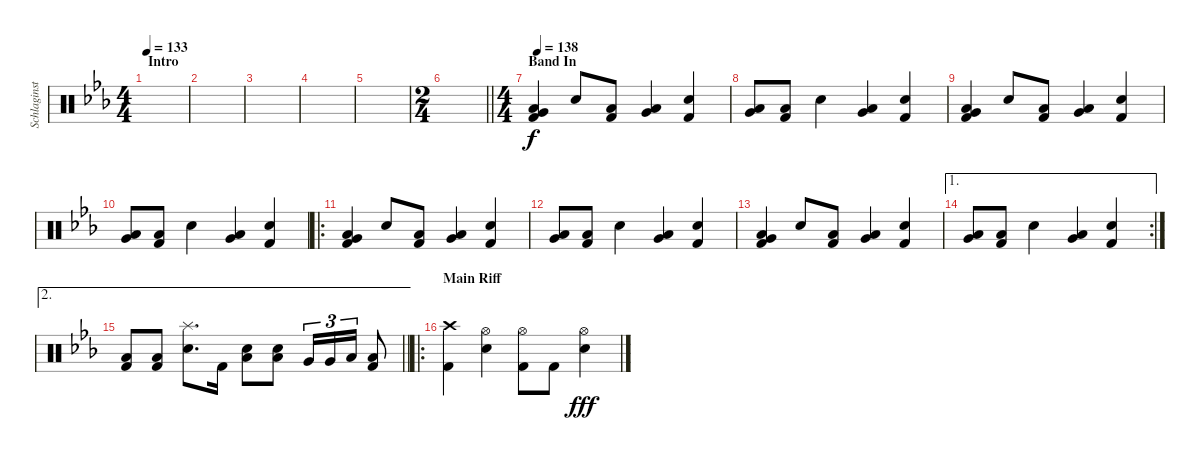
\track ("Schlaginstrumente - Auswahl" "Schlaginst") {instrument percussion}
\staff {score}
\articulation defaults
\ts (4 4)
\section ("" "Intro")
\tempo 133
\clef neutral
\ks eb
|
|
|
|
|
\ts (2 4)
\barLineRight lightlight
|
\ts (4 4)
\section ("" "Band In")
\tempo 138
("Very Low Tom (hit)" "Low Floor Tom (hit)" "Kick (hit) 2").4 "Electric Snare (hit)".8 ("Low Floor Tom (hit)" "Kick (hit) 2").8 ("Low Tom (hit)" "Very Low Tom (hit)").4 ("Electric Snare (hit)" "Kick (hit) 2").4 |
("Low Tom (hit)" "Very Low Tom (hit)").8 ("Low Floor Tom (hit)" "Kick (hit) 2").8 "Electric Snare (hit)".4 ("Very Low Tom (hit)" "Low Floor Tom (hit)").4 ("Electric Snare (hit)" "Kick (hit) 2").4 |
("Very Low Tom (hit)" "Low Floor Tom (hit)" "Kick (hit) 2").4 "Electric Snare (hit)".8 ("Low Floor Tom (hit)" "Kick (hit) 2").8 ("Low Tom (hit)" "Very Low Tom (hit)").4 ("Electric Snare (hit)" "Kick (hit) 2").4 |
("Low Tom (hit)" "Very Low Tom (hit)").8 ("Low Floor Tom (hit)" "Kick (hit) 2").8 "Electric Snare (hit)".4 ("Very Low Tom (hit)" "Low Floor Tom (hit)").4 ("Electric Snare (hit)" "Kick (hit) 2").4 |
\ro
("Very Low Tom (hit)" "Low Floor Tom (hit)" "Kick (hit) 2").4 "Electric Snare (hit)".8 ("Low Floor Tom (hit)" "Kick (hit) 2").8 ("Low Tom (hit)" "Very Low Tom (hit)").4 ("Electric Snare (hit)" "Kick (hit) 2").4 |
("Low Tom (hit)" "Very Low Tom (hit)").8 ("Low Floor Tom (hit)" "Kick (hit) 2").8 "Electric Snare (hit)".4 ("Very Low Tom (hit)" "Low Floor Tom (hit)").4 ("Electric Snare (hit)" "Kick (hit) 2").4 |
("Very Low Tom (hit)" "Low Floor Tom (hit)" "Kick (hit) 2").4 "Electric Snare (hit)".8 ("Low Floor Tom (hit)" "Kick (hit) 2").8 ("Low Tom (hit)" "Very Low Tom (hit)").4 ("Electric Snare (hit)" "Kick (hit) 2").4 |
\ae 1
\rc 2
("Low Tom (hit)" "Very Low Tom (hit)").8 ("Low Floor Tom (hit)" "Kick (hit) 2").8 "Electric Snare (hit)".4 ("Very Low Tom (hit)" "Low Floor Tom (hit)").4 ("Electric Snare (hit)" "Kick (hit) 2").4 |
\ae 2
\barLineRight lightlight
("Low Floor Tom (hit)" "Kick (hit) 2").8 ("Low Floor Tom (hit)" "Kick (hit) 2").8 ("Splash (hit)" "Electric Snare (hit)").8{d} "Kick (hit) 2".16 ("Low Tom (hit)" "Electric Snare (hit)").8 ("Low Tom (hit)" "Electric Snare (hit)").8 "Very Low Tom (hit)".16{tu (3 2)} "Very Low Tom (hit)".16{tu (3 2)} "Low Floor Tom (hit)".16{tu (3 2)} ("Low Floor Tom (hit)" "Kick (hit) 2").8 |
\ro
\section ("" "Main Riff")
("Crash high (hit)" "Kick (hit) 2").4 ("Hi-Hat (open)" "Electric Snare (hit)").4 ("Hi-Hat (open)" "Kick (hit) 2").8 "Kick (hit) 2".8 ("Hi-Hat (open)" "Electric Snare (hit)").4{dy fff}
